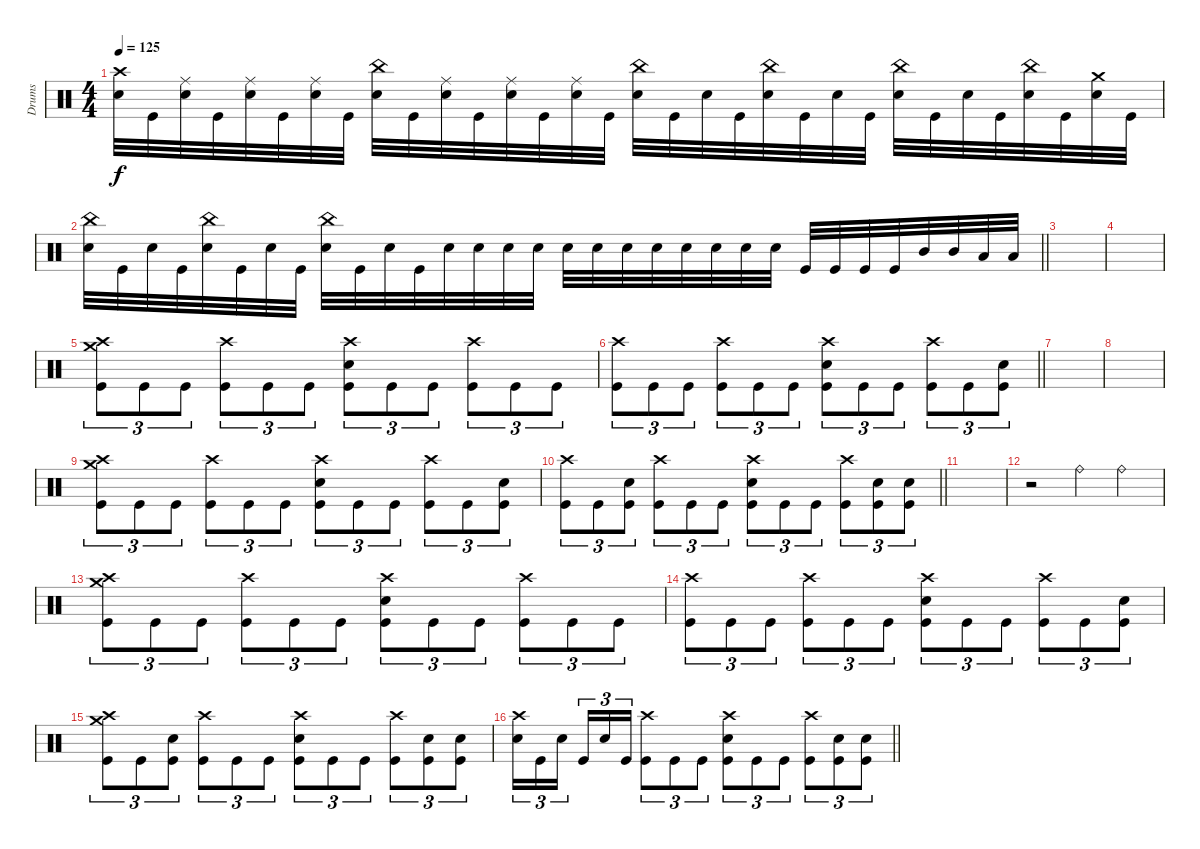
\track ("Drums" "Drums") {instrument percussion}
\staff
\articulation defaults
\ts (4 4)
\tempo 125
\clef neutral
\ks c
("Crash high (hit)" "Electric Snare (hit)").32{dy f} "Kick (hit)".32 ("Ride (middle)" "Electric Snare (hit)").32 "Kick (hit)".32 ("Ride (middle)" "Electric Snare (hit)").32 "Kick (hit)".32 ("Ride (middle)" "Electric Snare (hit)").32 "Kick (hit)".32 ("China (hit)" "Electric Snare (hit)").32 "Kick (hit)".32 ("Ride (middle)" "Electric Snare (hit)").32 "Kick (hit)".32 ("Ride (middle)" "Electric Snare (hit)").32 "Kick (hit)".32 ("Ride (middle)" "Electric Snare (hit)").32 "Kick (hit)".32 ("China (hit)" "Electric Snare (hit)").32 "Kick (hit)".32 "Electric Snare (hit)".32 "Kick (hit)".32 ("China (hit)" "Electric Snare (hit)").32 "Kick (hit)".32 "Electric Snare (hit)".32 "Kick (hit)".32 ("China (hit)" "Electric Snare (hit)").32 "Kick (hit)".32 "Electric Snare (hit)".32 "Kick (hit)".32 ("China (hit)" "Electric Snare (hit)").32 "Kick (hit)".32 ("Crash medium (hit)" "Electric Snare (hit)").32 "Kick (hit)".32 |
\barLineRight lightlight
("China (hit)" "Electric Snare (hit)").32 "Kick (hit)".32 "Electric Snare (hit)".32 "Kick (hit)".32 ("China (hit)" "Electric Snare (hit)").32 "Kick (hit)".32 "Electric Snare (hit)".32 "Kick (hit)".32 ("China (hit)" "Electric Snare (hit)").32 "Kick (hit)".32 "Electric Snare (hit)".32 "Kick (hit)".32 "Electric Snare (hit)".32 "Electric Snare (hit)".32 "Electric Snare (hit)".32 "Electric Snare (hit)".32 "Electric Snare (hit)".32 "Electric Snare (hit)".32 "Electric Snare (hit)".32 "Electric Snare (hit)".32 "Electric Snare (hit)".32 "Electric Snare (hit)".32 "Electric Snare (hit)".32 "Electric Snare (hit)".32 "Kick (hit)".32 "Kick (hit)".32 "Kick (hit)".32 "Kick (hit)".32 "Mid Tom (hit)".32 "Mid Tom (hit)".32 "Low Tom (hit)".32 "Low Tom (hit)".32 |
\section ("" "")
|
|
("Crash high (hit)" "Crash medium (hit)" "Kick (hit)").8{tu (3 2)} "Kick (hit)".8{tu (3 2)} "Kick (hit)".8{tu (3 2)} ("Crash high (hit)" "Kick (hit)").8{tu (3 2)} "Kick (hit)".8{tu (3 2)} "Kick (hit)".8{tu (3 2)} ("Crash high (hit)" "Electric Snare (hit)" "Kick (hit)").8{tu (3 2)} "Kick (hit)".8{tu (3 2)} "Kick (hit)".8{tu (3 2)} ("Crash high (hit)" "Kick (hit)").8{tu (3 2)} "Kick (hit)".8{tu (3 2)} "Kick (hit)".8{tu (3 2)} |
\barLineRight lightlight
("Crash high (hit)" "Kick (hit)").8{tu (3 2)} "Kick (hit)".8{tu (3 2)} "Kick (hit)".8{tu (3 2)} ("Crash high (hit)" "Kick (hit)").8{tu (3 2)} "Kick (hit)".8{tu (3 2)} "Kick (hit)".8{tu (3 2)} ("Crash high (hit)" "Electric Snare (hit)" "Kick (hit)").8{tu (3 2)} "Kick (hit)".8{tu (3 2)} "Kick (hit)".8{tu (3 2)} ("Crash high (hit)" "Kick (hit)").8{tu (3 2)} "Kick (hit)".8{tu (3 2)} ("Electric Snare (hit)" "Kick (hit)").8{tu (3 2)} |
|
|
("Crash high (hit)" "Crash medium (hit)" "Kick (hit)").8{tu (3 2)} "Kick (hit)".8{tu (3 2)} "Kick (hit)".8{tu (3 2)} ("Crash high (hit)" "Kick (hit)").8{tu (3 2)} "Kick (hit)".8{tu (3 2)} "Kick (hit)".8{tu (3 2)} ("Crash high (hit)" "Electric Snare (hit)" "Kick (hit)").8{tu (3 2)} "Kick (hit)".8{tu (3 2)} "Kick (hit)".8{tu (3 2)} ("Crash high (hit)" "Kick (hit)").8{tu (3 2)} "Kick (hit)".8{tu (3 2)} ("Electric Snare (hit)" "Kick (hit)").8{tu (3 2)} |
\barLineRight lightlight
("Crash high (hit)" "Kick (hit)").8{tu (3 2)} "Kick (hit)".8{tu (3 2)} ("Electric Snare (hit)" "Kick (hit)").8{tu (3 2)} ("Crash high (hit)" "Kick (hit)").8{tu (3 2)} "Kick (hit)".8{tu (3 2)} "Kick (hit)".8{tu (3 2)} ("Crash high (hit)" "Electric Snare (hit)" "Kick (hit)").8{tu (3 2)} "Kick (hit)".8{tu (3 2)} "Kick (hit)".8{tu (3 2)} ("Crash high (hit)" "Kick (hit)").8{tu (3 2)} ("Electric Snare (hit)" "Kick (hit)").8{tu (3 2)} ("Electric Snare (hit)" "Kick (hit)").8{tu (3 2)} |
|
r.2 "Ride (bell)".4 "Ride (bell)".4 |
("Crash high (hit)" "Crash medium (hit)" "Kick (hit)").8{tu (3 2)} "Kick (hit)".8{tu (3 2)} "Kick (hit)".8{tu (3 2)} ("Crash high (hit)" "Kick (hit)").8{tu (3 2)} "Kick (hit)".8{tu (3 2)} "Kick (hit)".8{tu (3 2)} ("Crash high (hit)" "Electric Snare (hit)" "Kick (hit)").8{tu (3 2)} "Kick (hit)".8{tu (3 2)} "Kick (hit)".8{tu (3 2)} ("Crash high (hit)" "Kick (hit)").8{tu (3 2)} "Kick (hit)".8{tu (3 2)} "Kick (hit)".8{tu (3 2)} |
("Crash high (hit)" "Kick (hit)").8{tu (3 2)} "Kick (hit)".8{tu (3 2)} "Kick (hit)".8{tu (3 2)} ("Crash high (hit)" "Kick (hit)").8{tu (3 2)} "Kick (hit)".8{tu (3 2)} "Kick (hit)".8{tu (3 2)} ("Crash high (hit)" "Electric Snare (hit)" "Kick (hit)").8{tu (3 2)} "Kick (hit)".8{tu (3 2)} "Kick (hit)".8{tu (3 2)} ("Crash high (hit)" "Kick (hit)").8{tu (3 2)} "Kick (hit)".8{tu (3 2)} ("Electric Snare (hit)" "Kick (hit)").8{tu (3 2)} |
("Crash high (hit)" "Crash medium (hit)" "Kick (hit)").8{tu (3 2)} "Kick (hit)".8{tu (3 2)} ("Electric Snare (hit)" "Kick (hit)").8{tu (3 2)} ("Crash high (hit)" "Kick (hit)").8{tu (3 2)} "Kick (hit)".8{tu (3 2)} "Kick (hit)".8{tu (3 2)} ("Crash high (hit)" "Electric Snare (hit)" "Kick (hit)").8{tu (3 2)} "Kick (hit)".8{tu (3 2)} "Kick (hit)".8{tu (3 2)} ("Crash high (hit)" "Kick (hit)").8{tu (3 2)} ("Electric Snare (hit)" "Kick (hit)").8{tu (3 2)} ("Electric Snare (hit)" "Kick (hit)").8{tu (3 2)} |
\barLineRight lightlight
("Crash high (hit)" "Electric Snare (hit)").16{tu (3 2)} "Kick (hit)".16{tu (3 2)} "Electric Snare (hit)".16{tu (3 2) beam splitsecondary} "Kick (hit)".16{tu (3 2)} "Electric Snare (hit)".16{tu (3 2)} "Kick (hit)".16{tu (3 2)} ("Crash high (hit)" "Kick (hit)").8{tu (3 2)} "Kick (hit)".8{tu (3 2)} "Kick (hit)".8{tu (3 2)} ("Crash high (hit)" "Electric Snare (hit)" "Kick (hit)").8{tu (3 2)} "Kick (hit)".8{tu (3 2)} "Kick (hit)".8{tu (3 2)} ("Crash high (hit)" "Kick (hit)").8{tu (3 2)} ("Electric Snare (hit)" "Kick (hit)").8{tu (3 2)} ("Electric Snare (hit)" "Kick (hit)").8{tu (3 2)}
